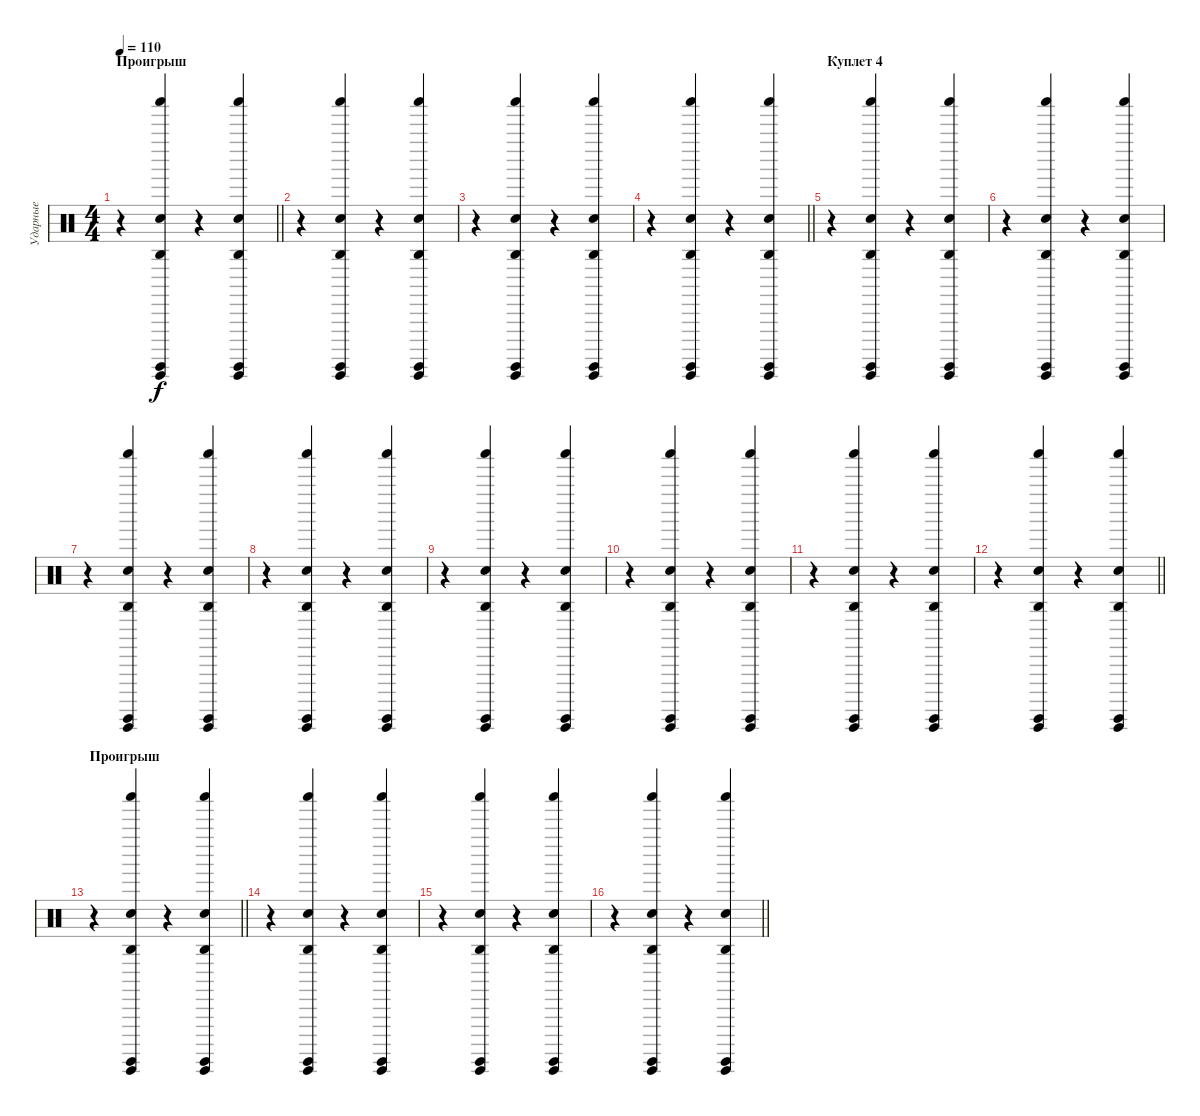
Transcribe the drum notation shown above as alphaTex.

\track ("Ударные" "Ударные") {instrument percussion}
\staff {score}
\articulation defaults
\ts (4 4)
\section ("" "Проигрыш")
\tempo 110
\clef neutral
\barLineRight lightlight
\ks c
r.4{dy f} ("Agogo high (hit)" "Hand Clap (hit)" "Guiro (hit)" "Shaker (hit)" "Surdo (hit)").4 r.4 ("Agogo high (hit)" "Hand Clap (hit)" "Guiro (hit)" "Shaker (hit)" "Surdo (hit)").4 |
r.4 ("Agogo high (hit)" "Hand Clap (hit)" "Guiro (hit)" "Shaker (hit)" "Surdo (hit)").4 r.4 ("Agogo high (hit)" "Hand Clap (hit)" "Guiro (hit)" "Shaker (hit)" "Surdo (hit)").4 |
r.4 ("Agogo high (hit)" "Hand Clap (hit)" "Guiro (hit)" "Shaker (hit)" "Surdo (hit)").4 r.4 ("Agogo high (hit)" "Hand Clap (hit)" "Guiro (hit)" "Shaker (hit)" "Surdo (hit)").4 |
\barLineRight lightlight
r.4 ("Agogo high (hit)" "Hand Clap (hit)" "Guiro (hit)" "Shaker (hit)" "Surdo (hit)").4 r.4 ("Agogo high (hit)" "Hand Clap (hit)" "Guiro (hit)" "Shaker (hit)" "Surdo (hit)").4 |
\section ("" "Куплет 4")
r.4 ("Agogo high (hit)" "Hand Clap (hit)" "Guiro (hit)" "Shaker (hit)" "Surdo (hit)").4 r.4 ("Agogo high (hit)" "Hand Clap (hit)" "Guiro (hit)" "Shaker (hit)" "Surdo (hit)").4 |
r.4 ("Agogo high (hit)" "Hand Clap (hit)" "Guiro (hit)" "Shaker (hit)" "Surdo (hit)").4 r.4 ("Agogo high (hit)" "Hand Clap (hit)" "Guiro (hit)" "Shaker (hit)" "Surdo (hit)").4 |
r.4 ("Agogo high (hit)" "Hand Clap (hit)" "Guiro (hit)" "Shaker (hit)" "Surdo (hit)").4 r.4 ("Agogo high (hit)" "Hand Clap (hit)" "Guiro (hit)" "Shaker (hit)" "Surdo (hit)").4 |
r.4 ("Agogo high (hit)" "Hand Clap (hit)" "Guiro (hit)" "Shaker (hit)" "Surdo (hit)").4 r.4 ("Agogo high (hit)" "Hand Clap (hit)" "Guiro (hit)" "Shaker (hit)" "Surdo (hit)").4 |
r.4 ("Agogo high (hit)" "Hand Clap (hit)" "Guiro (hit)" "Shaker (hit)" "Surdo (hit)").4 r.4 ("Agogo high (hit)" "Hand Clap (hit)" "Guiro (hit)" "Shaker (hit)" "Surdo (hit)").4 |
r.4 ("Agogo high (hit)" "Hand Clap (hit)" "Guiro (hit)" "Shaker (hit)" "Surdo (hit)").4 r.4 ("Agogo high (hit)" "Hand Clap (hit)" "Guiro (hit)" "Shaker (hit)" "Surdo (hit)").4 |
r.4 ("Agogo high (hit)" "Hand Clap (hit)" "Guiro (hit)" "Shaker (hit)" "Surdo (hit)").4 r.4 ("Agogo high (hit)" "Hand Clap (hit)" "Guiro (hit)" "Shaker (hit)" "Surdo (hit)").4 |
\barLineRight lightlight
r.4 ("Agogo high (hit)" "Hand Clap (hit)" "Guiro (hit)" "Shaker (hit)" "Surdo (hit)").4 r.4 ("Agogo high (hit)" "Hand Clap (hit)" "Guiro (hit)" "Shaker (hit)" "Surdo (hit)").4 |
\section ("" "Проигрыш")
\barLineRight lightlight
r.4 ("Agogo high (hit)" "Hand Clap (hit)" "Guiro (hit)" "Shaker (hit)" "Surdo (hit)").4 r.4 ("Agogo high (hit)" "Hand Clap (hit)" "Guiro (hit)" "Shaker (hit)" "Surdo (hit)").4 |
r.4 ("Agogo high (hit)" "Hand Clap (hit)" "Guiro (hit)" "Shaker (hit)" "Surdo (hit)").4 r.4 ("Agogo high (hit)" "Hand Clap (hit)" "Guiro (hit)" "Shaker (hit)" "Surdo (hit)").4 |
r.4 ("Agogo high (hit)" "Hand Clap (hit)" "Guiro (hit)" "Shaker (hit)" "Surdo (hit)").4 r.4 ("Agogo high (hit)" "Hand Clap (hit)" "Guiro (hit)" "Shaker (hit)" "Surdo (hit)").4 |
\barLineRight lightlight
r.4 ("Agogo high (hit)" "Hand Clap (hit)" "Guiro (hit)" "Shaker (hit)" "Surdo (hit)").4 r.4 ("Agogo high (hit)" "Hand Clap (hit)" "Guiro (hit)" "Shaker (hit)" "Surdo (hit)").4
